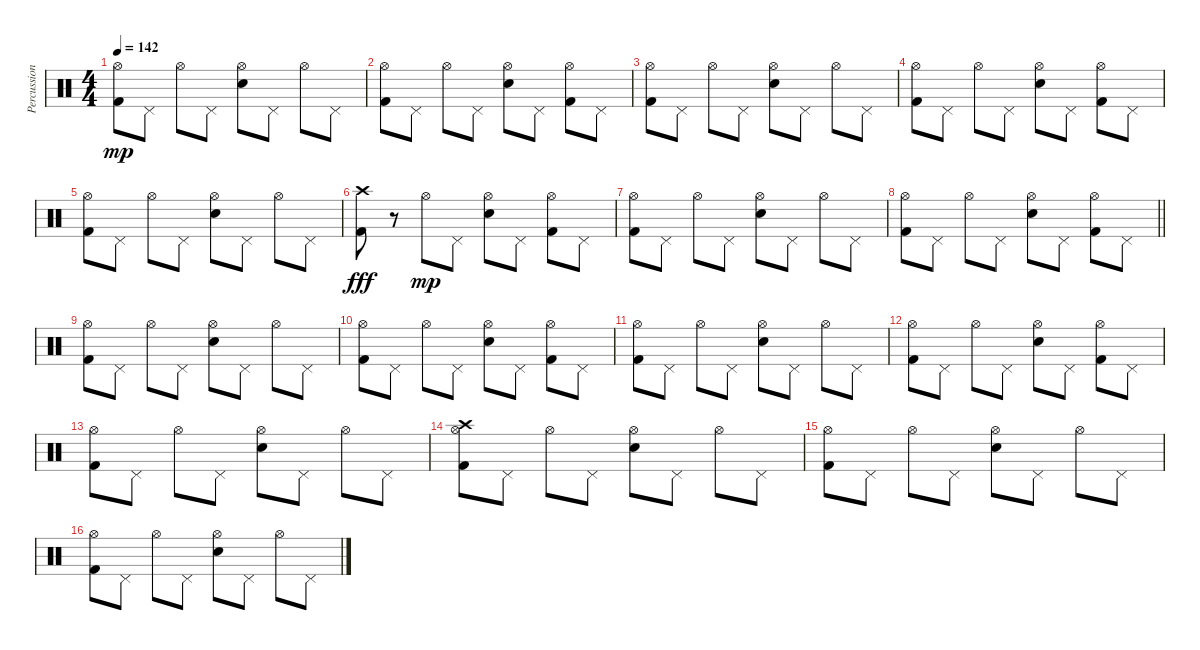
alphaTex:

\track ("Percussion" "Percussion") {instrument percussion}
\staff {score}
\articulation defaults
\ts (4 4)
\tempo 142
\clef neutral
\ks c
("Kick (hit) 2" "Hi-Hat (open)").8{dy mp} "Pedal Hi-Hat (hit)".8 "Hi-Hat (open)".8 "Pedal Hi-Hat (hit)".8 ("Electric Snare (hit)" "Hi-Hat (open)").8 "Pedal Hi-Hat (hit)".8 "Hi-Hat (open)".8 "Pedal Hi-Hat (hit)".8 |
("Kick (hit) 2" "Hi-Hat (open)").8 "Pedal Hi-Hat (hit)".8 "Hi-Hat (open)".8 "Pedal Hi-Hat (hit)".8 ("Electric Snare (hit)" "Hi-Hat (open)").8 "Pedal Hi-Hat (hit)".8 ("Kick (hit) 2" "Hi-Hat (open)").8 "Pedal Hi-Hat (hit)".8 |
("Kick (hit) 2" "Hi-Hat (open)").8 "Pedal Hi-Hat (hit)".8 "Hi-Hat (open)".8 "Pedal Hi-Hat (hit)".8 ("Electric Snare (hit)" "Hi-Hat (open)").8 "Pedal Hi-Hat (hit)".8 "Hi-Hat (open)".8 "Pedal Hi-Hat (hit)".8 |
("Kick (hit) 2" "Hi-Hat (open)").8 "Pedal Hi-Hat (hit)".8 "Hi-Hat (open)".8 "Pedal Hi-Hat (hit)".8 ("Electric Snare (hit)" "Hi-Hat (open)").8 "Pedal Hi-Hat (hit)".8 ("Kick (hit) 2" "Hi-Hat (open)").8 "Pedal Hi-Hat (hit)".8 |
("Kick (hit) 2" "Hi-Hat (open)").8 "Pedal Hi-Hat (hit)".8 "Hi-Hat (open)".8 "Pedal Hi-Hat (hit)".8 ("Electric Snare (hit)" "Hi-Hat (open)").8 "Pedal Hi-Hat (hit)".8 "Hi-Hat (open)".8 "Pedal Hi-Hat (hit)".8 |
("Kick (hit) 2" "Crash high (hit)").8{dy fff} r.8 "Hi-Hat (open)".8{dy mp} "Pedal Hi-Hat (hit)".8 ("Electric Snare (hit)" "Hi-Hat (open)").8 "Pedal Hi-Hat (hit)".8 ("Kick (hit) 2" "Hi-Hat (open)").8 "Pedal Hi-Hat (hit)".8 |
("Kick (hit) 2" "Hi-Hat (open)").8 "Pedal Hi-Hat (hit)".8 "Hi-Hat (open)".8 "Pedal Hi-Hat (hit)".8 ("Electric Snare (hit)" "Hi-Hat (open)").8 "Pedal Hi-Hat (hit)".8 "Hi-Hat (open)".8 "Pedal Hi-Hat (hit)".8 |
\barLineRight lightlight
("Kick (hit) 2" "Hi-Hat (open)").8 "Pedal Hi-Hat (hit)".8 "Hi-Hat (open)".8 "Pedal Hi-Hat (hit)".8 ("Electric Snare (hit)" "Hi-Hat (open)").8 "Pedal Hi-Hat (hit)".8 ("Kick (hit) 2" "Hi-Hat (open)").8 "Pedal Hi-Hat (hit)".8 |
("Kick (hit) 2" "Hi-Hat (open)").8 "Pedal Hi-Hat (hit)".8 "Hi-Hat (open)".8 "Pedal Hi-Hat (hit)".8 ("Electric Snare (hit)" "Hi-Hat (open)").8 "Pedal Hi-Hat (hit)".8 "Hi-Hat (open)".8 "Pedal Hi-Hat (hit)".8 |
("Kick (hit) 2" "Hi-Hat (open)").8 "Pedal Hi-Hat (hit)".8 "Hi-Hat (open)".8 "Pedal Hi-Hat (hit)".8 ("Electric Snare (hit)" "Hi-Hat (open)").8 "Pedal Hi-Hat (hit)".8 ("Kick (hit) 2" "Hi-Hat (open)").8 "Pedal Hi-Hat (hit)".8 |
("Kick (hit) 2" "Hi-Hat (open)").8 "Pedal Hi-Hat (hit)".8 "Hi-Hat (open)".8 "Pedal Hi-Hat (hit)".8 ("Electric Snare (hit)" "Hi-Hat (open)").8 "Pedal Hi-Hat (hit)".8 "Hi-Hat (open)".8 "Pedal Hi-Hat (hit)".8 |
("Kick (hit) 2" "Hi-Hat (open)").8 "Pedal Hi-Hat (hit)".8 "Hi-Hat (open)".8 "Pedal Hi-Hat (hit)".8 ("Electric Snare (hit)" "Hi-Hat (open)").8 "Pedal Hi-Hat (hit)".8 ("Kick (hit) 2" "Hi-Hat (open)").8 "Pedal Hi-Hat (hit)".8 |
("Kick (hit) 2" "Hi-Hat (open)").8 "Pedal Hi-Hat (hit)".8 "Hi-Hat (open)".8 "Pedal Hi-Hat (hit)".8 ("Electric Snare (hit)" "Hi-Hat (open)").8 "Pedal Hi-Hat (hit)".8 "Hi-Hat (open)".8 "Pedal Hi-Hat (hit)".8 |
("Kick (hit) 2" "Hi-Hat (open)" "Crash high (hit)").8 "Pedal Hi-Hat (hit)".8 "Hi-Hat (open)".8 "Pedal Hi-Hat (hit)".8 ("Electric Snare (hit)" "Hi-Hat (open)").8 "Pedal Hi-Hat (hit)".8 "Hi-Hat (open)".8 "Pedal Hi-Hat (hit)".8 |
("Kick (hit) 2" "Hi-Hat (open)").8 "Pedal Hi-Hat (hit)".8 "Hi-Hat (open)".8 "Pedal Hi-Hat (hit)".8 ("Electric Snare (hit)" "Hi-Hat (open)").8 "Pedal Hi-Hat (hit)".8 "Hi-Hat (open)".8 "Pedal Hi-Hat (hit)".8 |
("Kick (hit) 2" "Hi-Hat (open)").8 "Pedal Hi-Hat (hit)".8 "Hi-Hat (open)".8 "Pedal Hi-Hat (hit)".8 ("Electric Snare (hit)" "Hi-Hat (open)").8 "Pedal Hi-Hat (hit)".8 "Hi-Hat (open)".8 "Pedal Hi-Hat (hit)".8
